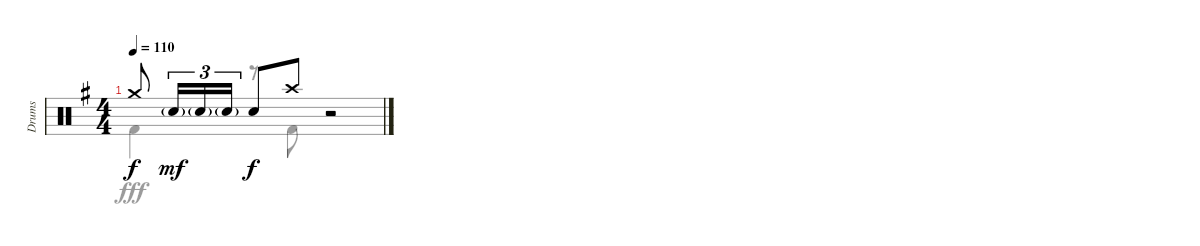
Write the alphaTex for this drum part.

\track ("Drums" "Drums") {instrument percussion}
\staff {score}
\articulation defaults
\voice
\ts (4 4)
\tempo 110
\clef neutral
\ks g "Crash medium (hit)".8{dy f} "Snare (hit) 2"{g}.16{tu (3 2) dy mf} "Snare (hit) 2"{g}.16{tu (3 2)} "Snare (hit) 2"{g}.16{tu (3 2)} "Snare (hit) 2".8{dy f} "Crash high (hit)".8
r.2
\voice
\clef neutral
\ottava regular
\simile none
\ks g "Kick (hit) 2".4{dy fff}
r.8 "Kick (hit) 2".8 r.2
